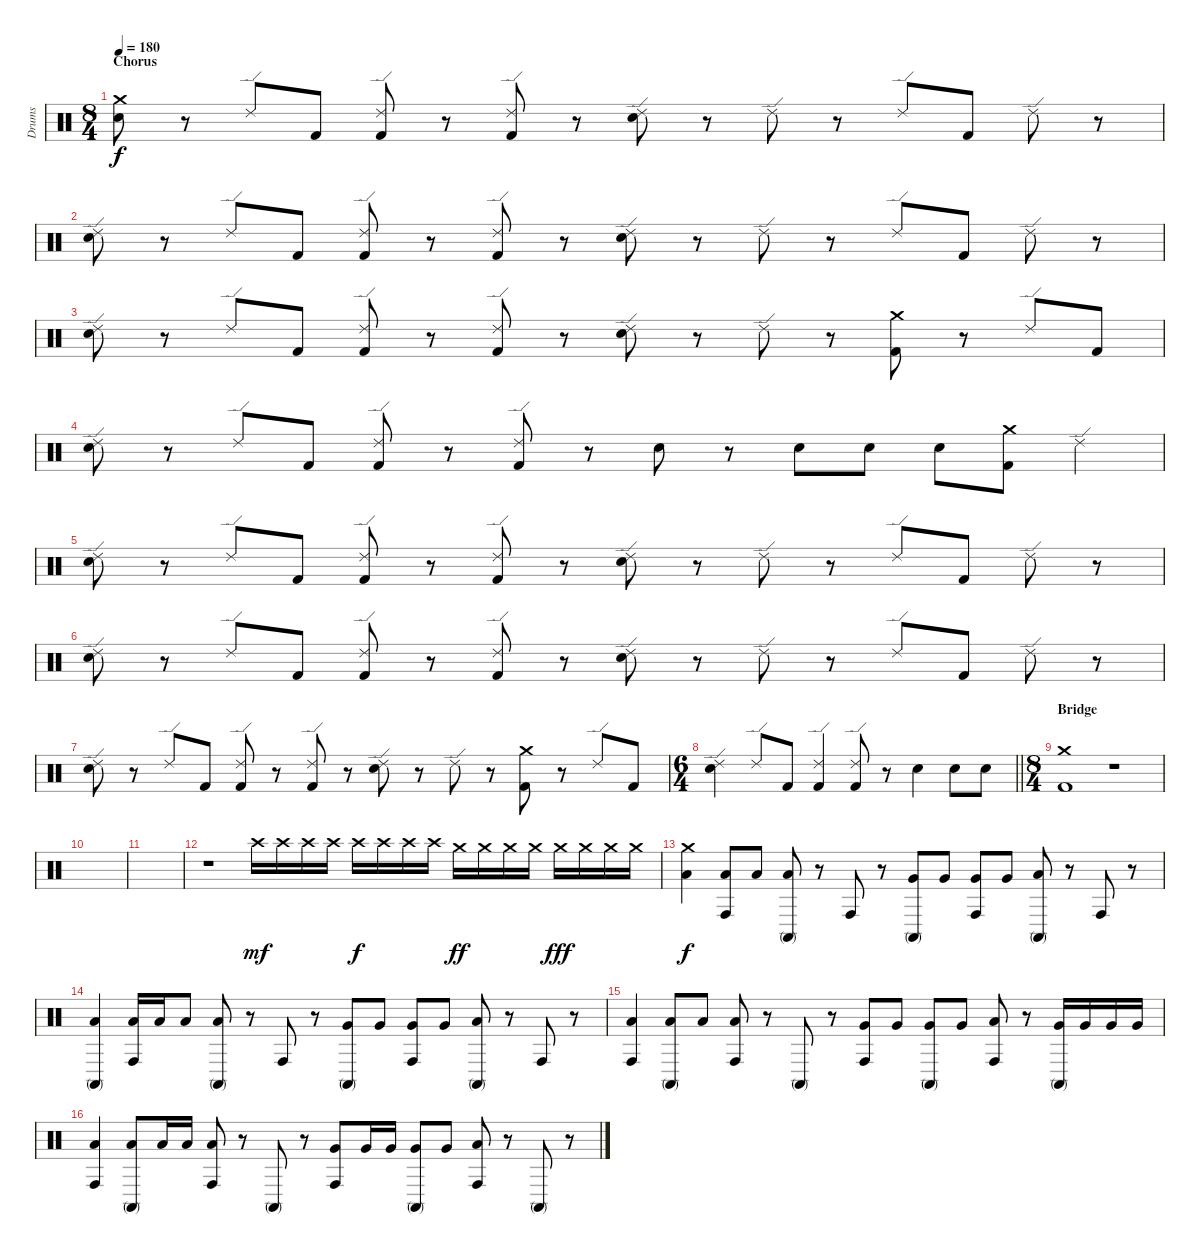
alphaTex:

\track ("Drums" "Drums") {instrument percussion}
\staff {score}
\articulation defaults
\ts (8 4)
\section ("" "Chorus")
\tempo 180
\clef neutral
\ks c
("Crash medium (hit)" "Snare (hit) 2").8{dy f} r.8 "Ride (edge) 2".8 "Kick (hit) 2".8 ("Ride (edge) 2" "Kick (hit) 2").8 r.8 ("Kick (hit) 2" "Ride (edge) 2").8 r.8 ("Ride (edge) 2" "Snare (hit) 2").8 r.8 "Ride (edge) 2".8 r.8 "Ride (edge) 2".8 "Kick (hit) 2".8 "Ride (edge) 2".8 r.8 |
("Ride (edge) 2" "Snare (hit) 2").8 r.8 "Ride (edge) 2".8 "Kick (hit) 2".8 ("Ride (edge) 2" "Kick (hit) 2").8 r.8 ("Ride (edge) 2" "Kick (hit) 2").8 r.8 ("Ride (edge) 2" "Snare (hit) 2").8 r.8 "Ride (edge) 2".8 r.8 "Ride (edge) 2".8 "Kick (hit) 2".8 "Ride (edge) 2".8 r.8 |
("Ride (edge) 2" "Snare (hit) 2").8 r.8 "Ride (edge) 2".8 "Kick (hit) 2".8 ("Ride (edge) 2" "Kick (hit) 2").8 r.8 ("Ride (edge) 2" "Kick (hit) 2").8 r.8 ("Ride (edge) 2" "Snare (hit) 2").8 r.8 "Ride (edge) 2".8 r.8 ("Crash medium (hit)" "Kick (hit) 2").8 r.8 "Ride (edge) 2".8 "Kick (hit) 2".8 |
("Ride (edge) 2" "Snare (hit) 2").8 r.8 "Ride (edge) 2".8 "Kick (hit) 2".8 ("Ride (edge) 2" "Kick (hit) 2").8 r.8 ("Ride (edge) 2" "Kick (hit) 2").8 r.8 "Snare (hit) 2".8 r.8 "Snare (hit) 2".8 "Snare (hit) 2".8 "Snare (hit) 2".8 ("Crash medium (hit)" "Kick (hit) 2").8 "Ride (edge) 2".4 |
("Ride (edge) 2" "Snare (hit) 2").8 r.8 "Ride (edge) 2".8 "Kick (hit) 2".8 ("Ride (edge) 2" "Kick (hit) 2").8 r.8 ("Kick (hit) 2" "Ride (edge) 2").8 r.8 ("Ride (edge) 2" "Snare (hit) 2").8 r.8 "Ride (edge) 2".8 r.8 "Ride (edge) 2".8 "Kick (hit) 2".8 "Ride (edge) 2".8 r.8 |
("Ride (edge) 2" "Snare (hit) 2").8 r.8 "Ride (edge) 2".8 "Kick (hit) 2".8 ("Ride (edge) 2" "Kick (hit) 2").8 r.8 ("Ride (edge) 2" "Kick (hit) 2").8 r.8 ("Ride (edge) 2" "Snare (hit) 2").8 r.8 "Ride (edge) 2".8 r.8 "Ride (edge) 2".8 "Kick (hit) 2".8 "Ride (edge) 2".8 r.8 |
("Ride (edge) 2" "Snare (hit) 2").8 r.8 "Ride (edge) 2".8 "Kick (hit) 2".8 ("Ride (edge) 2" "Kick (hit) 2").8 r.8 ("Ride (edge) 2" "Kick (hit) 2").8 r.8 ("Ride (edge) 2" "Snare (hit) 2").8 r.8 "Ride (edge) 2".8 r.8 ("Crash medium (hit)" "Kick (hit) 2").8 r.8 "Ride (edge) 2".8 "Kick (hit) 2".8 |
\ts (6 4)
\barLineRight lightlight
("Ride (edge) 2" "Snare (hit) 2").4 "Ride (edge) 2".8 "Kick (hit) 2".8 ("Ride (edge) 2" "Kick (hit) 2").4 ("Ride (edge) 2" "Kick (hit) 2").8 r.8 "Snare (hit) 2".4 "Snare (hit) 2".8 "Snare (hit) 2".8 |
\ts (8 4)
\section ("" "Bridge")
("Crash medium (hit)" "Kick (hit) 2").1 r.1 |
|
|
r.1{volume 6} "Crash high (hit)".16{dy mf} "Crash high (hit)".16 "Crash high (hit)".16 "Crash high (hit)".16 "Crash high (hit)".16{dy f} "Crash high (hit)".16 "Crash high (hit)".16 "Crash high (hit)".16 "Crash medium (hit)".16{dy ff} "Crash medium (hit)".16 "Crash medium (hit)".16 "Crash medium (hit)".16 "Crash medium (hit)".16{dy fff} "Crash medium (hit)".16 "Crash medium (hit)".16 "Crash medium (hit)".16 |
("Crash medium (hit)" "Low Floor Tom (hit)").4{dy f volume 13} ("Conga high (hit)" "Low Floor Tom (hit)").8 "Low Floor Tom (hit)".8 ("Conga high (mute)" "Low Tom (hit)").8 r.8 "Conga high (hit)".8 r.8 ("Conga high (mute)" "Very Low Tom (hit)").8 "Very Low Tom (hit)".8 ("Conga high (hit)" "Very Low Tom (hit)").8 "Very Low Tom (hit)".8 ("Conga high (mute)" "Low Tom (hit)").8 r.8 "Conga high (hit)".8 r.8 |
("Conga high (mute)" "Low Floor Tom (hit)").4 ("Conga high (hit)" "Low Floor Tom (hit)").16 "Low Floor Tom (hit)".16 "Low Floor Tom (hit)".8 ("Conga high (mute)" "Low Tom (hit)").8 r.8 "Conga high (hit)".8 r.8 ("Conga high (mute)" "Very Low Tom (hit)").8 "Very Low Tom (hit)".8 ("Conga high (hit)" "Very Low Tom (hit)").8 "Very Low Tom (hit)".8 ("Conga high (mute)" "Low Tom (hit)").8 r.8 "Conga high (hit)".8 r.8 |
("Conga high (hit)" "Low Floor Tom (hit)").4 ("Conga high (mute)" "Low Floor Tom (hit)").8 "Low Floor Tom (hit)".8 ("Conga high (hit)" "Low Floor Tom (hit)").8 r.8 "Conga high (mute)".8 r.8 ("Conga high (hit)" "Very Low Tom (hit)").8 "Very Low Tom (hit)".8 ("Conga high (mute)" "Very Low Tom (hit)").8 "Very Low Tom (hit)".8 ("Conga high (hit)" "Low Tom (hit)").8 r.8 ("Conga high (mute)" "Very Low Tom (hit)").16 "Very Low Tom (hit)".16 "Very Low Tom (hit)".16 "Very Low Tom (hit)".16 |
("Conga high (hit)" "Low Floor Tom (hit)").4 ("Conga high (mute)" "Low Floor Tom (hit)").8 "Low Floor Tom (hit)".16 "Low Floor Tom (hit)".16 ("Conga high (hit)" "Low Tom (hit)").8 r.8 "Conga high (mute)".8 r.8 ("Conga high (hit)" "Very Low Tom (hit)").8 "Very Low Tom (hit)".16 "Very Low Tom (hit)".16 ("Conga high (mute)" "Very Low Tom (hit)").8 "Very Low Tom (hit)".8 ("Conga high (hit)" "Low Tom (hit)").8 r.8 "Conga high (mute)".8 r.8
